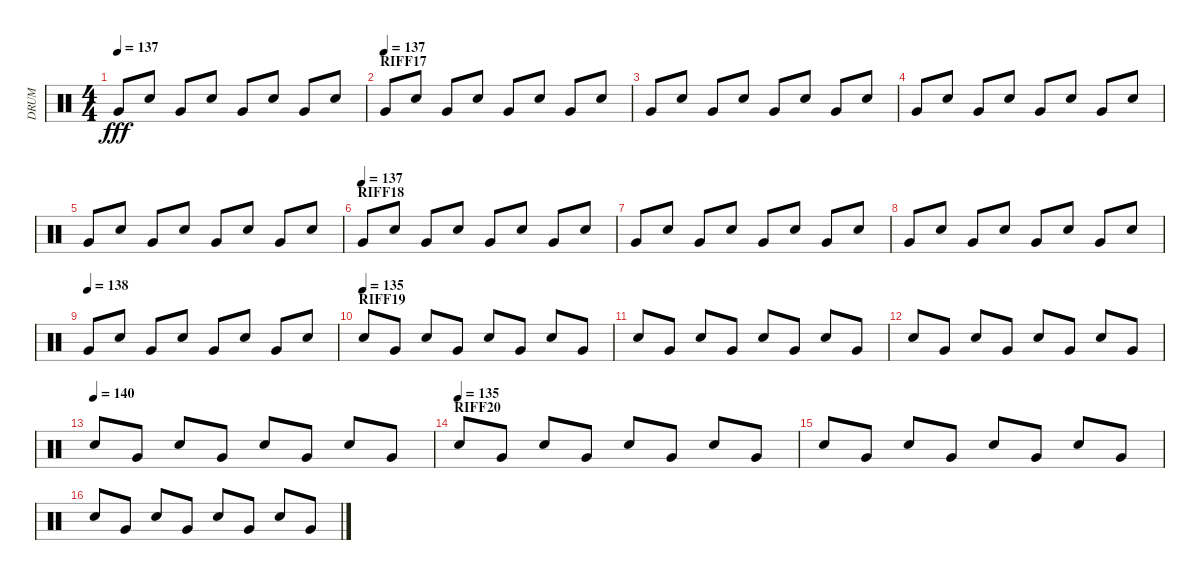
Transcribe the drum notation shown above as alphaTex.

\track ("DRUM" "DRUM") {instrument percussion}
\staff {score}
\articulation defaults
\ts (4 4)
\tempo 137
\clef neutral
\ks c "Very Low Tom (hit)".8{dy fff} "Electric Snare (hit)".8 "Very Low Tom (hit)".8 "Electric Snare (hit)".8 "Very Low Tom (hit)".8 "Electric Snare (hit)".8 "Very Low Tom (hit)".8 "Electric Snare (hit)".8
|
\section ("" "RIFF17")
\tempo (137)
"Very Low Tom (hit)".8 "Electric Snare (hit)".8 "Very Low Tom (hit)".8 "Electric Snare (hit)".8 "Very Low Tom (hit)".8 "Electric Snare (hit)".8 "Very Low Tom (hit)".8 "Electric Snare (hit)".8 |
"Very Low Tom (hit)".8 "Electric Snare (hit)".8 "Very Low Tom (hit)".8 "Electric Snare (hit)".8 "Very Low Tom (hit)".8 "Electric Snare (hit)".8 "Very Low Tom (hit)".8 "Electric Snare (hit)".8 |
"Very Low Tom (hit)".8 "Electric Snare (hit)".8 "Very Low Tom (hit)".8 "Electric Snare (hit)".8 "Very Low Tom (hit)".8 "Electric Snare (hit)".8 "Very Low Tom (hit)".8 "Electric Snare (hit)".8 |
"Very Low Tom (hit)".8 "Electric Snare (hit)".8 "Very Low Tom (hit)".8 "Electric Snare (hit)".8 "Very Low Tom (hit)".8 "Electric Snare (hit)".8 "Very Low Tom (hit)".8 "Electric Snare (hit)".8 |
\section ("" "RIFF18")
\tempo (137)
"Very Low Tom (hit)".8 "Electric Snare (hit)".8 "Very Low Tom (hit)".8 "Electric Snare (hit)".8 "Very Low Tom (hit)".8 "Electric Snare (hit)".8 "Very Low Tom (hit)".8 "Electric Snare (hit)".8 |
"Very Low Tom (hit)".8 "Electric Snare (hit)".8 "Very Low Tom (hit)".8 "Electric Snare (hit)".8 "Very Low Tom (hit)".8 "Electric Snare (hit)".8 "Very Low Tom (hit)".8 "Electric Snare (hit)".8 |
"Very Low Tom (hit)".8 "Electric Snare (hit)".8 "Very Low Tom (hit)".8 "Electric Snare (hit)".8 "Very Low Tom (hit)".8 "Electric Snare (hit)".8 "Very Low Tom (hit)".8 "Electric Snare (hit)".8 |
\tempo (138)
"Very Low Tom (hit)".8 "Electric Snare (hit)".8 "Very Low Tom (hit)".8 "Electric Snare (hit)".8 "Very Low Tom (hit)".8 "Electric Snare (hit)".8 "Very Low Tom (hit)".8 "Electric Snare (hit)".8 |
\section ("" "RIFF19")
\tempo (135)
"Electric Snare (hit)".8 "Very Low Tom (hit)".8 "Electric Snare (hit)".8 "Very Low Tom (hit)".8 "Electric Snare (hit)".8 "Very Low Tom (hit)".8 "Electric Snare (hit)".8 "Very Low Tom (hit)".8 |
"Electric Snare (hit)".8 "Very Low Tom (hit)".8 "Electric Snare (hit)".8 "Very Low Tom (hit)".8 "Electric Snare (hit)".8 "Very Low Tom (hit)".8 "Electric Snare (hit)".8 "Very Low Tom (hit)".8 |
"Electric Snare (hit)".8 "Very Low Tom (hit)".8 "Electric Snare (hit)".8 "Very Low Tom (hit)".8 "Electric Snare (hit)".8 "Very Low Tom (hit)".8 "Electric Snare (hit)".8 "Very Low Tom (hit)".8 |
\tempo (140)
"Electric Snare (hit)".8 "Very Low Tom (hit)".8 "Electric Snare (hit)".8 "Very Low Tom (hit)".8 "Electric Snare (hit)".8 "Very Low Tom (hit)".8 "Electric Snare (hit)".8 "Very Low Tom (hit)".8 |
\section ("" "RIFF20")
\tempo (135)
"Electric Snare (hit)".8 "Very Low Tom (hit)".8 "Electric Snare (hit)".8 "Very Low Tom (hit)".8 "Electric Snare (hit)".8 "Very Low Tom (hit)".8 "Electric Snare (hit)".8 "Very Low Tom (hit)".8 |
"Electric Snare (hit)".8 "Very Low Tom (hit)".8 "Electric Snare (hit)".8 "Very Low Tom (hit)".8 "Electric Snare (hit)".8 "Very Low Tom (hit)".8 "Electric Snare (hit)".8 "Very Low Tom (hit)".8 |
"Electric Snare (hit)".8 "Very Low Tom (hit)".8 "Electric Snare (hit)".8 "Very Low Tom (hit)".8 "Electric Snare (hit)".8 "Very Low Tom (hit)".8 "Electric Snare (hit)".8 "Very Low Tom (hit)".8
